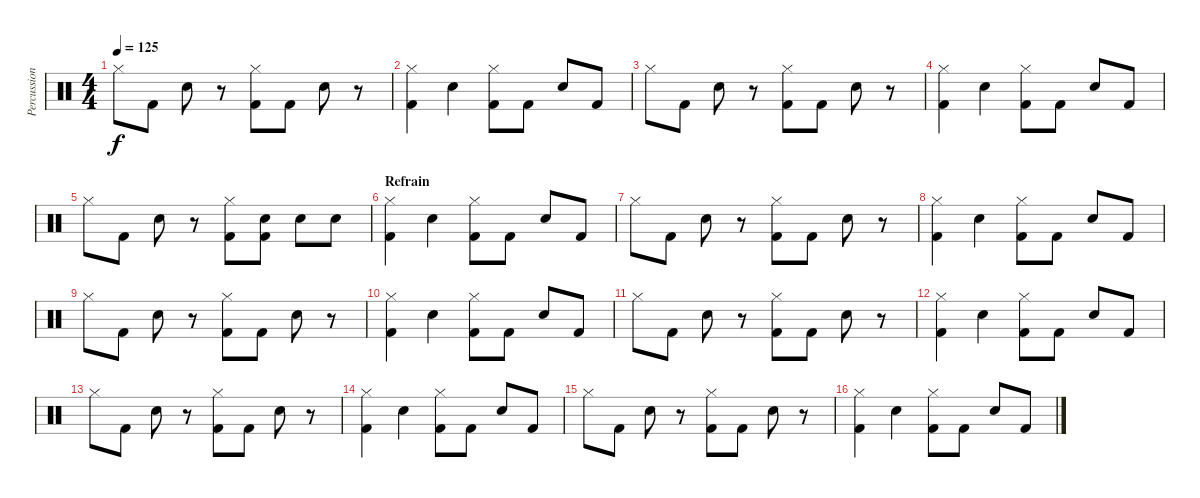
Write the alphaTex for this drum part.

\track ("Percussions" "Percussion") {instrument percussion}
\staff {score}
\articulation defaults
\ts (4 4)
\tempo 125
\clef neutral
\ks c "Hi-Hat (closed)".8{dy f} "Kick (hit) 2".8 "Snare (hit) 2".8
r.8 ("Hi-Hat (closed)" "Kick (hit) 2").8 "Kick (hit) 2".8 "Snare (hit) 2".8 r.8 |
("Hi-Hat (closed)" "Kick (hit) 2").4 "Snare (hit) 2".4 ("Hi-Hat (closed)" "Kick (hit) 2").8 "Kick (hit) 2".8 "Snare (hit) 2".8 "Kick (hit) 2".8 |
"Hi-Hat (closed)".8 "Kick (hit) 2".8 "Snare (hit) 2".8 r.8 ("Hi-Hat (closed)" "Kick (hit) 2").8 "Kick (hit) 2".8 "Snare (hit) 2".8 r.8 |
("Hi-Hat (closed)" "Kick (hit) 2").4 "Snare (hit) 2".4 ("Hi-Hat (closed)" "Kick (hit) 2").8 "Kick (hit) 2".8 "Snare (hit) 2".8 "Kick (hit) 2".8 |
"Hi-Hat (closed)".8 "Kick (hit) 2".8 "Snare (hit) 2".8 r.8 ("Hi-Hat (closed)" "Kick (hit) 2").8 ("Snare (hit) 2" "Kick (hit) 2").8 "Snare (hit) 2".8 "Snare (hit) 2".8 |
\section ("" "Refrain")
("Hi-Hat (closed)" "Kick (hit) 2").4 "Snare (hit) 2".4 ("Hi-Hat (closed)" "Kick (hit) 2").8 "Kick (hit) 2".8 "Snare (hit) 2".8 "Kick (hit) 2".8 |
"Hi-Hat (closed)".8 "Kick (hit) 2".8 "Snare (hit) 2".8 r.8 ("Hi-Hat (closed)" "Kick (hit) 2").8 "Kick (hit) 2".8 "Snare (hit) 2".8 r.8 |
("Hi-Hat (closed)" "Kick (hit) 2").4 "Snare (hit) 2".4 ("Hi-Hat (closed)" "Kick (hit) 2").8 "Kick (hit) 2".8 "Snare (hit) 2".8 "Kick (hit) 2".8 |
"Hi-Hat (closed)".8 "Kick (hit) 2".8 "Snare (hit) 2".8 r.8 ("Hi-Hat (closed)" "Kick (hit) 2").8 "Kick (hit) 2".8 "Snare (hit) 2".8 r.8 |
("Hi-Hat (closed)" "Kick (hit) 2").4 "Snare (hit) 2".4 ("Hi-Hat (closed)" "Kick (hit) 2").8 "Kick (hit) 2".8 "Snare (hit) 2".8 "Kick (hit) 2".8 |
"Hi-Hat (closed)".8 "Kick (hit) 2".8 "Snare (hit) 2".8 r.8 ("Hi-Hat (closed)" "Kick (hit) 2").8 "Kick (hit) 2".8 "Snare (hit) 2".8 r.8 |
("Hi-Hat (closed)" "Kick (hit) 2").4 "Snare (hit) 2".4 ("Hi-Hat (closed)" "Kick (hit) 2").8 "Kick (hit) 2".8 "Snare (hit) 2".8 "Kick (hit) 2".8 |
"Hi-Hat (closed)".8 "Kick (hit) 2".8 "Snare (hit) 2".8 r.8 ("Hi-Hat (closed)" "Kick (hit) 2").8 "Kick (hit) 2".8 "Snare (hit) 2".8 r.8 |
("Hi-Hat (closed)" "Kick (hit) 2").4 "Snare (hit) 2".4 ("Hi-Hat (closed)" "Kick (hit) 2").8 "Kick (hit) 2".8 "Snare (hit) 2".8 "Kick (hit) 2".8 |
"Hi-Hat (closed)".8 "Kick (hit) 2".8 "Snare (hit) 2".8 r.8 ("Hi-Hat (closed)" "Kick (hit) 2").8 "Kick (hit) 2".8 "Snare (hit) 2".8 r.8 |
("Hi-Hat (closed)" "Kick (hit) 2").4 "Snare (hit) 2".4 ("Hi-Hat (closed)" "Kick (hit) 2").8 "Kick (hit) 2".8 "Snare (hit) 2".8 "Kick (hit) 2".8
